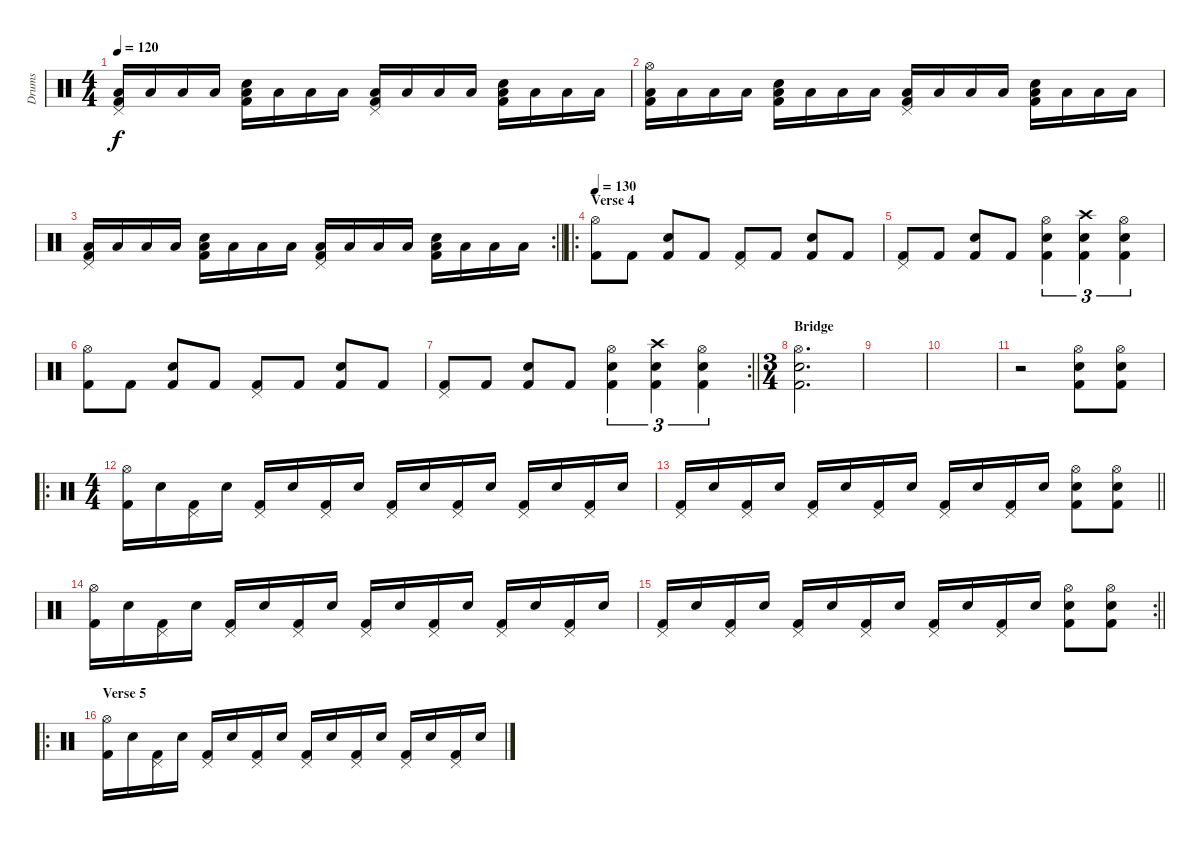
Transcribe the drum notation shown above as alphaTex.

\track ("Drums" "Drums") {instrument percussion}
\staff {score}
\articulation defaults
\ts (4 4)
\tempo 120
\clef neutral
\ks c
("Pedal Hi-Hat (hit)" "Low Tom (hit)" "Kick (hit) 2").16{dy f} "Low Tom (hit)".16 "Low Tom (hit)".16 "Low Tom (hit)".16 ("Snare (hit) 2" "Low Tom (hit)" "Kick (hit) 2").16 "Low Tom (hit)".16 "Low Tom (hit)".16 "Low Tom (hit)".16 ("Pedal Hi-Hat (hit)" "Low Tom (hit)" "Kick (hit) 2").16 "Low Tom (hit)".16 "Low Tom (hit)".16 "Low Tom (hit)".16 ("Snare (hit) 2" "Low Tom (hit)" "Kick (hit) 2").16 "Low Tom (hit)".16 "Low Tom (hit)".16 "Low Tom (hit)".16 |
("Hi-Hat (open)" "Low Tom (hit)" "Kick (hit) 2").16 "Low Tom (hit)".16 "Low Tom (hit)".16 "Low Tom (hit)".16 ("Snare (hit) 2" "Low Tom (hit)" "Kick (hit) 2").16 "Low Tom (hit)".16 "Low Tom (hit)".16 "Low Tom (hit)".16 ("Pedal Hi-Hat (hit)" "Low Tom (hit)" "Kick (hit) 2").16 "Low Tom (hit)".16 "Low Tom (hit)".16 "Low Tom (hit)".16 ("Snare (hit) 2" "Low Tom (hit)" "Kick (hit) 2").16 "Low Tom (hit)".16 "Low Tom (hit)".16 "Low Tom (hit)".16 |
\rc 2
\barLineRight lightlight
("Pedal Hi-Hat (hit)" "Low Tom (hit)" "Kick (hit) 2").16 "Low Tom (hit)".16 "Low Tom (hit)".16 "Low Tom (hit)".16 ("Snare (hit) 2" "Low Tom (hit)" "Kick (hit) 2").16 "Low Tom (hit)".16 "Low Tom (hit)".16 "Low Tom (hit)".16 ("Pedal Hi-Hat (hit)" "Low Tom (hit)" "Kick (hit) 2").16 "Low Tom (hit)".16 "Low Tom (hit)".16 "Low Tom (hit)".16 ("Snare (hit) 2" "Low Tom (hit)" "Kick (hit) 2").16 "Low Tom (hit)".16 "Low Tom (hit)".16 "Low Tom (hit)".16 |
\ro
\section ("" "Verse 4")
\tempo 130
("Hi-Hat (open)" "Kick (hit) 2").8 "Kick (hit) 2".8 ("Snare (hit) 2" "Kick (hit) 2").8 "Kick (hit) 2".8 ("Pedal Hi-Hat (hit)" "Kick (hit) 2").8 "Kick (hit) 2".8 ("Snare (hit) 2" "Kick (hit) 2").8 "Kick (hit) 2".8 |
("Pedal Hi-Hat (hit)" "Kick (hit) 2").8 "Kick (hit) 2".8 ("Snare (hit) 2" "Kick (hit) 2").8 "Kick (hit) 2".8 ("Hi-Hat (open)" "Snare (hit) 2" "Kick (hit) 2").4{tu (3 2)} ("Crash high (hit)" "Snare (hit) 2" "Kick (hit) 2").4{tu (3 2)} ("Hi-Hat (open)" "Snare (hit) 2" "Kick (hit) 2").4{tu (3 2)} |
("Hi-Hat (open)" "Kick (hit) 2").8 "Kick (hit) 2".8 ("Snare (hit) 2" "Kick (hit) 2").8 "Kick (hit) 2".8 ("Pedal Hi-Hat (hit)" "Kick (hit) 2").8 "Kick (hit) 2".8 ("Snare (hit) 2" "Kick (hit) 2").8 "Kick (hit) 2".8 |
\rc 2
\barLineRight lightlight
("Pedal Hi-Hat (hit)" "Kick (hit) 2").8 "Kick (hit) 2".8 ("Snare (hit) 2" "Kick (hit) 2").8 "Kick (hit) 2".8 ("Hi-Hat (open)" "Snare (hit) 2" "Kick (hit) 2").4{tu (3 2)} ("Crash high (hit)" "Snare (hit) 2" "Kick (hit) 2").4{tu (3 2)} ("Hi-Hat (open)" "Snare (hit) 2" "Kick (hit) 2").4{tu (3 2)} |
\ts (3 4)
\section ("" "Bridge")
("Hi-Hat (open)" "Snare (hit) 2" "Kick (hit) 2").2{d} |
|
|
r.2 ("Hi-Hat (open)" "Snare (hit) 2" "Kick (hit) 2").8 ("Hi-Hat (open)" "Snare (hit) 2" "Kick (hit) 2").8 |
\ro
\ts (4 4)
("Hi-Hat (open)" "Kick (hit) 2").16 "Snare (hit) 2".16 ("Pedal Hi-Hat (hit)" "Kick (hit) 2").16 "Snare (hit) 2".16 ("Pedal Hi-Hat (hit)" "Kick (hit) 2").16 "Snare (hit) 2".16 ("Pedal Hi-Hat (hit)" "Kick (hit) 2").16 "Snare (hit) 2".16 ("Pedal Hi-Hat (hit)" "Kick (hit) 2").16 "Snare (hit) 2".16 ("Pedal Hi-Hat (hit)" "Kick (hit) 2").16 "Snare (hit) 2".16 ("Pedal Hi-Hat (hit)" "Kick (hit) 2").16 "Snare (hit) 2".16 ("Pedal Hi-Hat (hit)" "Kick (hit) 2").16 "Snare (hit) 2".16 |
\barLineRight lightlight
("Pedal Hi-Hat (hit)" "Kick (hit) 2").16 "Snare (hit) 2".16 ("Pedal Hi-Hat (hit)" "Kick (hit) 2").16 "Snare (hit) 2".16 ("Pedal Hi-Hat (hit)" "Kick (hit) 2").16 "Snare (hit) 2".16 ("Pedal Hi-Hat (hit)" "Kick (hit) 2").16 "Snare (hit) 2".16 ("Pedal Hi-Hat (hit)" "Kick (hit) 2").16 "Snare (hit) 2".16 ("Pedal Hi-Hat (hit)" "Kick (hit) 2").16 "Snare (hit) 2".16 ("Hi-Hat (open)" "Snare (hit) 2" "Kick (hit) 2").8 ("Hi-Hat (open)" "Snare (hit) 2" "Kick (hit) 2").8 |
("Hi-Hat (open)" "Kick (hit) 2").16 "Snare (hit) 2".16 ("Pedal Hi-Hat (hit)" "Kick (hit) 2").16 "Snare (hit) 2".16 ("Pedal Hi-Hat (hit)" "Kick (hit) 2").16 "Snare (hit) 2".16 ("Pedal Hi-Hat (hit)" "Kick (hit) 2").16 "Snare (hit) 2".16 ("Pedal Hi-Hat (hit)" "Kick (hit) 2").16 "Snare (hit) 2".16 ("Pedal Hi-Hat (hit)" "Kick (hit) 2").16 "Snare (hit) 2".16 ("Pedal Hi-Hat (hit)" "Kick (hit) 2").16 "Snare (hit) 2".16 ("Pedal Hi-Hat (hit)" "Kick (hit) 2").16 "Snare (hit) 2".16 |
\rc 2
\barLineRight lightlight
("Pedal Hi-Hat (hit)" "Kick (hit) 2").16 "Snare (hit) 2".16 ("Pedal Hi-Hat (hit)" "Kick (hit) 2").16 "Snare (hit) 2".16 ("Pedal Hi-Hat (hit)" "Kick (hit) 2").16 "Snare (hit) 2".16 ("Pedal Hi-Hat (hit)" "Kick (hit) 2").16 "Snare (hit) 2".16 ("Pedal Hi-Hat (hit)" "Kick (hit) 2").16 "Snare (hit) 2".16 ("Pedal Hi-Hat (hit)" "Kick (hit) 2").16 "Snare (hit) 2".16 ("Hi-Hat (open)" "Snare (hit) 2" "Kick (hit) 2").8 ("Hi-Hat (open)" "Snare (hit) 2" "Kick (hit) 2").8 |
\ro
\section ("" "Verse 5")
("Hi-Hat (open)" "Kick (hit) 2").16 "Snare (hit) 2".16 ("Pedal Hi-Hat (hit)" "Kick (hit) 2").16 "Snare (hit) 2".16 ("Pedal Hi-Hat (hit)" "Kick (hit) 2").16 "Snare (hit) 2".16 ("Pedal Hi-Hat (hit)" "Kick (hit) 2").16 "Snare (hit) 2".16 ("Pedal Hi-Hat (hit)" "Kick (hit) 2").16 "Snare (hit) 2".16 ("Pedal Hi-Hat (hit)" "Kick (hit) 2").16 "Snare (hit) 2".16 ("Pedal Hi-Hat (hit)" "Kick (hit) 2").16 "Snare (hit) 2".16 ("Pedal Hi-Hat (hit)" "Kick (hit) 2").16 "Snare (hit) 2".16
